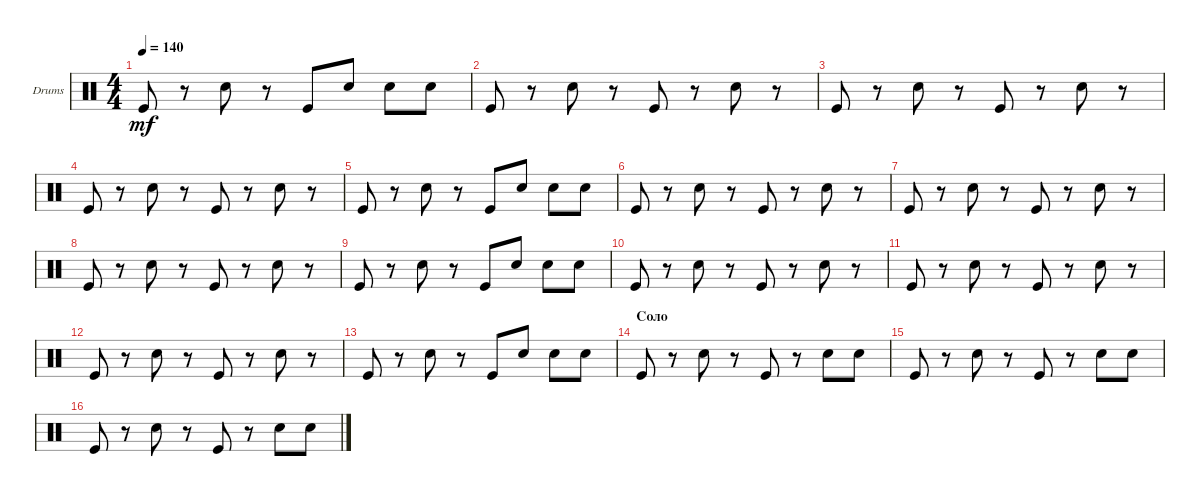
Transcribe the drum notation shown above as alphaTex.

\defaultSystemsLayout 4
\bracketExtendMode groupsimilarinstruments
\firstSystemTrackNameOrientation horizontal
\otherSystemsTrackNameOrientation horizontal
\track ("Drumkit" "Drums") {instrument percussion}
\staff {score}
\articulation defaults
\ts (4 4)
\tempo 140
\clef neutral
\ks c "Kick (hit)".8{dy mf}
r.8 "Snare (hit) 2".8 r.8 "Kick (hit)".8 "Snare (hit) 2".8 "Snare (hit) 2".8 "Snare (hit) 2".8 |
"Kick (hit)".8 r.8 "Snare (hit) 2".8 r.8 "Kick (hit)".8 r.8 "Snare (hit) 2".8 r.8 |
"Kick (hit)".8 r.8 "Snare (hit) 2".8 r.8 "Kick (hit)".8 r.8 "Snare (hit) 2".8 r.8 |
"Kick (hit)".8 r.8 "Snare (hit) 2".8 r.8 "Kick (hit)".8 r.8 "Snare (hit) 2".8 r.8 |
"Kick (hit)".8 r.8 "Snare (hit) 2".8 r.8 "Kick (hit)".8 "Snare (hit) 2".8 "Snare (hit) 2".8 "Snare (hit) 2".8 |
"Kick (hit)".8 r.8 "Snare (hit) 2".8 r.8 "Kick (hit)".8 r.8 "Snare (hit) 2".8 r.8 |
"Kick (hit)".8 r.8 "Snare (hit) 2".8 r.8 "Kick (hit)".8 r.8 "Snare (hit) 2".8 r.8 |
"Kick (hit)".8 r.8 "Snare (hit) 2".8 r.8 "Kick (hit)".8 r.8 "Snare (hit) 2".8 r.8 |
"Kick (hit)".8 r.8 "Snare (hit) 2".8 r.8 "Kick (hit)".8 "Snare (hit) 2".8 "Snare (hit) 2".8 "Snare (hit) 2".8 |
"Kick (hit)".8 r.8 "Snare (hit) 2".8 r.8 "Kick (hit)".8 r.8 "Snare (hit) 2".8 r.8 |
"Kick (hit)".8 r.8 "Snare (hit) 2".8 r.8 "Kick (hit)".8 r.8 "Snare (hit) 2".8 r.8 |
"Kick (hit)".8 r.8 "Snare (hit) 2".8 r.8 "Kick (hit)".8 r.8 "Snare (hit) 2".8 r.8 |
"Kick (hit)".8 r.8 "Snare (hit) 2".8 r.8 "Kick (hit)".8 "Snare (hit) 2".8 "Snare (hit) 2".8 "Snare (hit) 2".8 |
\section ("" "Соло")
"Kick (hit)".8 r.8 "Snare (hit) 2".8 r.8 "Kick (hit)".8 r.8 "Snare (hit) 2".8 "Snare (hit) 2".8 |
"Kick (hit)".8 r.8 "Snare (hit) 2".8 r.8 "Kick (hit)".8 r.8 "Snare (hit) 2".8 "Snare (hit) 2".8 |
"Kick (hit)".8 r.8 "Snare (hit) 2".8 r.8 "Kick (hit)".8 r.8 "Snare (hit) 2".8 "Snare (hit) 2".8
